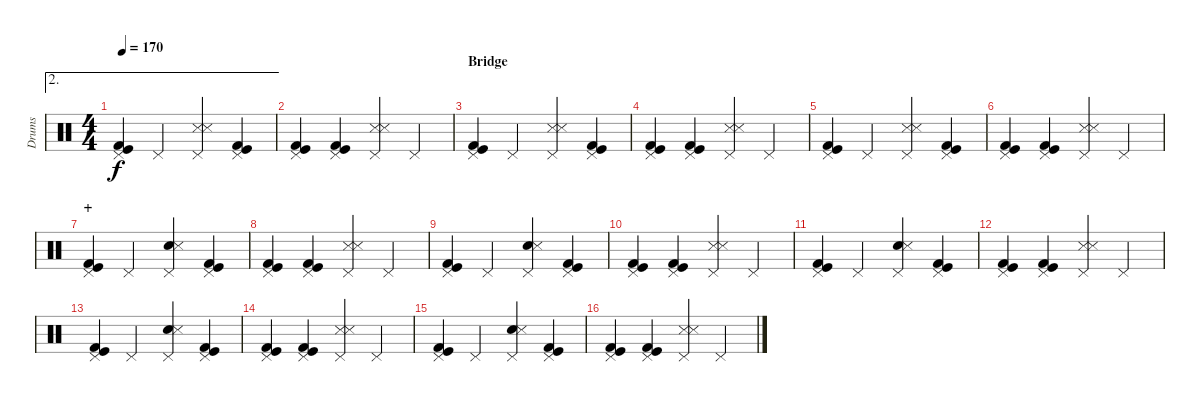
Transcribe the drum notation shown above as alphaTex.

\track ("Drums" "Drums") {instrument percussion}
\staff {score}
\articulation defaults
\ae 2
\ts (4 4)
\tempo 170
\clef neutral
\ks c
("Pedal Hi-Hat (hit)" "Kick (hit)" "Kick (hit) 2").4{dy f} "Pedal Hi-Hat (hit)".4 ("Pedal Hi-Hat (hit)" "Snare (side stick) 3" "Snare (side stick) 3").4 ("Pedal Hi-Hat (hit)" "Kick (hit)" "Kick (hit) 2").4 |
("Pedal Hi-Hat (hit)" "Kick (hit)" "Kick (hit) 2").4 ("Pedal Hi-Hat (hit)" "Kick (hit)" "Kick (hit) 2").4 ("Pedal Hi-Hat (hit)" "Snare (side stick) 3" "Snare (side stick) 3").4 "Pedal Hi-Hat (hit)".4 |
\section ("" "Bridge")
("Pedal Hi-Hat (hit)" "Kick (hit)" "Kick (hit) 2").4 "Pedal Hi-Hat (hit)".4 ("Pedal Hi-Hat (hit)" "Snare (side stick) 3" "Snare (side stick) 3").4 ("Pedal Hi-Hat (hit)" "Kick (hit)" "Kick (hit) 2").4 |
("Pedal Hi-Hat (hit)" "Kick (hit)" "Kick (hit) 2").4 ("Pedal Hi-Hat (hit)" "Kick (hit)" "Kick (hit) 2").4 ("Pedal Hi-Hat (hit)" "Snare (side stick) 3" "Snare (side stick) 3").4 "Pedal Hi-Hat (hit)".4 |
("Pedal Hi-Hat (hit)" "Kick (hit)" "Kick (hit) 2").4 "Pedal Hi-Hat (hit)".4 ("Pedal Hi-Hat (hit)" "Snare (side stick) 3" "Snare (side stick) 3").4 ("Pedal Hi-Hat (hit)" "Kick (hit)" "Kick (hit) 2").4 |
("Pedal Hi-Hat (hit)" "Kick (hit)" "Kick (hit) 2").4 ("Pedal Hi-Hat (hit)" "Kick (hit)" "Kick (hit) 2").4 ("Pedal Hi-Hat (hit)" "Snare (side stick) 3" "Snare (side stick) 3").4 "Pedal Hi-Hat (hit)".4 |
\section ("" "+")
("Pedal Hi-Hat (hit)" "Kick (hit)" "Kick (hit) 2").4 "Pedal Hi-Hat (hit)".4 ("Pedal Hi-Hat (hit)" "Snare (hit) 2" "Snare (side stick) 3").4 ("Pedal Hi-Hat (hit)" "Kick (hit)" "Kick (hit) 2").4 |
("Pedal Hi-Hat (hit)" "Kick (hit)" "Kick (hit) 2").4 ("Pedal Hi-Hat (hit)" "Kick (hit)" "Kick (hit) 2").4 ("Pedal Hi-Hat (hit)" "Snare (side stick) 3" "Snare (side stick) 3").4 "Pedal Hi-Hat (hit)".4 |
("Pedal Hi-Hat (hit)" "Kick (hit)" "Kick (hit) 2").4 "Pedal Hi-Hat (hit)".4 ("Pedal Hi-Hat (hit)" "Snare (hit) 2" "Snare (side stick) 3").4 ("Pedal Hi-Hat (hit)" "Kick (hit)" "Kick (hit) 2").4 |
("Pedal Hi-Hat (hit)" "Kick (hit)" "Kick (hit) 2").4 ("Pedal Hi-Hat (hit)" "Kick (hit)" "Kick (hit) 2").4 ("Pedal Hi-Hat (hit)" "Snare (side stick) 3" "Snare (side stick) 3").4 "Pedal Hi-Hat (hit)".4 |
("Pedal Hi-Hat (hit)" "Kick (hit)" "Kick (hit) 2").4 "Pedal Hi-Hat (hit)".4 ("Pedal Hi-Hat (hit)" "Snare (hit) 2" "Snare (side stick) 3").4 ("Pedal Hi-Hat (hit)" "Kick (hit)" "Kick (hit) 2").4 |
("Pedal Hi-Hat (hit)" "Kick (hit)" "Kick (hit) 2").4 ("Pedal Hi-Hat (hit)" "Kick (hit)" "Kick (hit) 2").4 ("Pedal Hi-Hat (hit)" "Snare (side stick) 3" "Snare (side stick) 3").4 "Pedal Hi-Hat (hit)".4 |
("Pedal Hi-Hat (hit)" "Kick (hit)" "Kick (hit) 2").4 "Pedal Hi-Hat (hit)".4 ("Pedal Hi-Hat (hit)" "Snare (hit) 2" "Snare (side stick) 3").4 ("Pedal Hi-Hat (hit)" "Kick (hit)" "Kick (hit) 2").4 |
("Pedal Hi-Hat (hit)" "Kick (hit)" "Kick (hit) 2").4 ("Pedal Hi-Hat (hit)" "Kick (hit)" "Kick (hit) 2").4 ("Pedal Hi-Hat (hit)" "Snare (side stick) 3" "Snare (side stick) 3").4 "Pedal Hi-Hat (hit)".4 |
("Pedal Hi-Hat (hit)" "Kick (hit)" "Kick (hit) 2").4 "Pedal Hi-Hat (hit)".4 ("Pedal Hi-Hat (hit)" "Snare (hit) 2" "Snare (side stick) 3").4 ("Pedal Hi-Hat (hit)" "Kick (hit)" "Kick (hit) 2").4 |
("Pedal Hi-Hat (hit)" "Kick (hit)" "Kick (hit) 2").4 ("Pedal Hi-Hat (hit)" "Kick (hit)" "Kick (hit) 2").4 ("Pedal Hi-Hat (hit)" "Snare (side stick) 3" "Snare (side stick) 3").4 "Pedal Hi-Hat (hit)".4
